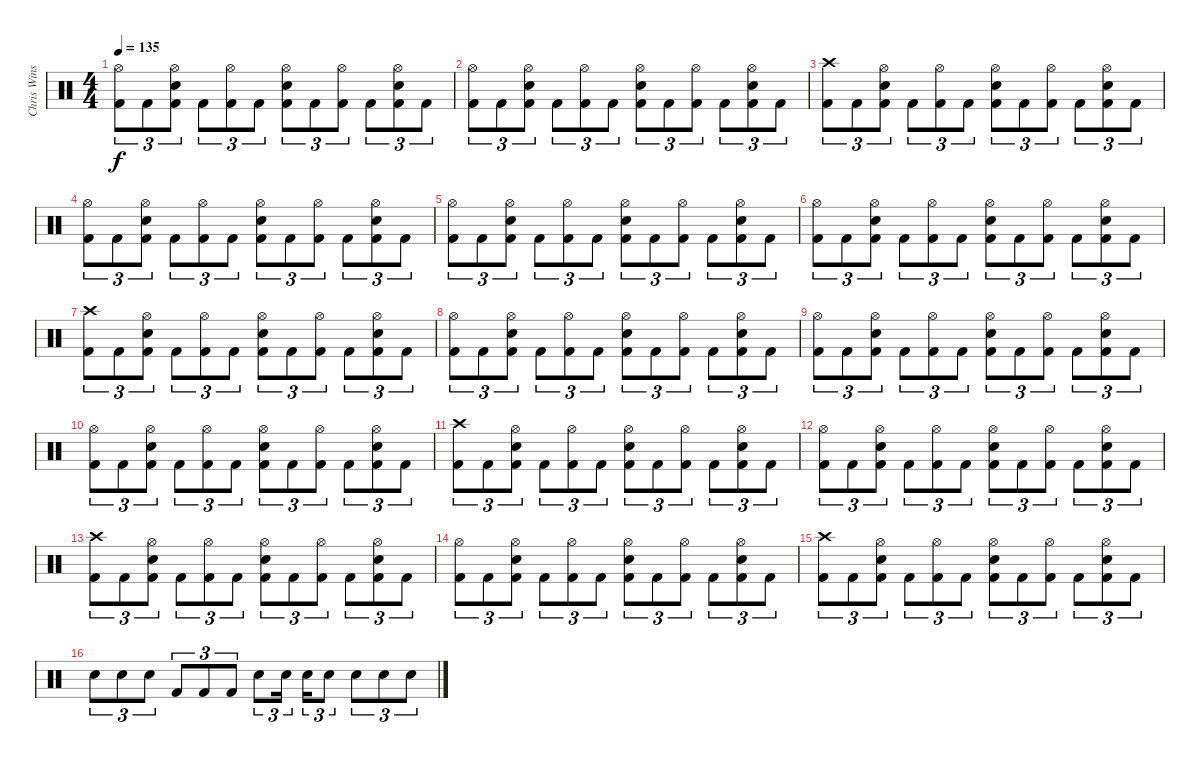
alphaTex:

\track ("Chris Winship (Drums)" "Chris Wins") {instrument percussion}
\staff {score}
\articulation defaults
\ts (4 4)
\tempo 135
\clef neutral
\ks c
("Hi-Hat (open)" "Kick (hit) 2").8{tu (3 2) dy f} "Kick (hit) 2".8{tu (3 2)} ("Hi-Hat (open)" "Electric Snare (hit)" "Kick (hit) 2").8{tu (3 2)} "Kick (hit) 2".8{tu (3 2)} ("Hi-Hat (open)" "Kick (hit) 2").8{tu (3 2)} "Kick (hit) 2".8{tu (3 2)} ("Hi-Hat (open)" "Electric Snare (hit)" "Kick (hit) 2").8{tu (3 2)} "Kick (hit) 2".8{tu (3 2)} ("Hi-Hat (open)" "Kick (hit) 2").8{tu (3 2)} "Kick (hit) 2".8{tu (3 2)} ("Hi-Hat (open)" "Electric Snare (hit)" "Kick (hit) 2").8{tu (3 2)} "Kick (hit) 2".8{tu (3 2)} |
("Hi-Hat (open)" "Kick (hit) 2").8{tu (3 2)} "Kick (hit) 2".8{tu (3 2)} ("Hi-Hat (open)" "Electric Snare (hit)" "Kick (hit) 2").8{tu (3 2)} "Kick (hit) 2".8{tu (3 2)} ("Hi-Hat (open)" "Kick (hit) 2").8{tu (3 2)} "Kick (hit) 2".8{tu (3 2)} ("Hi-Hat (open)" "Electric Snare (hit)" "Kick (hit) 2").8{tu (3 2)} "Kick (hit) 2".8{tu (3 2)} ("Hi-Hat (open)" "Kick (hit) 2").8{tu (3 2)} "Kick (hit) 2".8{tu (3 2)} ("Hi-Hat (open)" "Electric Snare (hit)" "Kick (hit) 2").8{tu (3 2)} "Kick (hit) 2".8{tu (3 2)} |
("Crash high (hit)" "Kick (hit) 2").8{tu (3 2)} "Kick (hit) 2".8{tu (3 2)} ("Hi-Hat (open)" "Electric Snare (hit)" "Kick (hit) 2").8{tu (3 2)} "Kick (hit) 2".8{tu (3 2)} ("Hi-Hat (open)" "Kick (hit) 2").8{tu (3 2)} "Kick (hit) 2".8{tu (3 2)} ("Hi-Hat (open)" "Electric Snare (hit)" "Kick (hit) 2").8{tu (3 2)} "Kick (hit) 2".8{tu (3 2)} ("Hi-Hat (open)" "Kick (hit) 2").8{tu (3 2)} "Kick (hit) 2".8{tu (3 2)} ("Hi-Hat (open)" "Electric Snare (hit)" "Kick (hit) 2").8{tu (3 2)} "Kick (hit) 2".8{tu (3 2)} |
("Hi-Hat (open)" "Kick (hit) 2").8{tu (3 2)} "Kick (hit) 2".8{tu (3 2)} ("Hi-Hat (open)" "Electric Snare (hit)" "Kick (hit) 2").8{tu (3 2)} "Kick (hit) 2".8{tu (3 2)} ("Hi-Hat (open)" "Kick (hit) 2").8{tu (3 2)} "Kick (hit) 2".8{tu (3 2)} ("Hi-Hat (open)" "Electric Snare (hit)" "Kick (hit) 2").8{tu (3 2)} "Kick (hit) 2".8{tu (3 2)} ("Hi-Hat (open)" "Kick (hit) 2").8{tu (3 2)} "Kick (hit) 2".8{tu (3 2)} ("Hi-Hat (open)" "Electric Snare (hit)" "Kick (hit) 2").8{tu (3 2)} "Kick (hit) 2".8{tu (3 2)} |
("Hi-Hat (open)" "Kick (hit) 2").8{tu (3 2)} "Kick (hit) 2".8{tu (3 2)} ("Hi-Hat (open)" "Electric Snare (hit)" "Kick (hit) 2").8{tu (3 2)} "Kick (hit) 2".8{tu (3 2)} ("Hi-Hat (open)" "Kick (hit) 2").8{tu (3 2)} "Kick (hit) 2".8{tu (3 2)} ("Hi-Hat (open)" "Electric Snare (hit)" "Kick (hit) 2").8{tu (3 2)} "Kick (hit) 2".8{tu (3 2)} ("Hi-Hat (open)" "Kick (hit) 2").8{tu (3 2)} "Kick (hit) 2".8{tu (3 2)} ("Hi-Hat (open)" "Electric Snare (hit)" "Kick (hit) 2").8{tu (3 2)} "Kick (hit) 2".8{tu (3 2)} |
("Hi-Hat (open)" "Kick (hit) 2").8{tu (3 2)} "Kick (hit) 2".8{tu (3 2)} ("Hi-Hat (open)" "Electric Snare (hit)" "Kick (hit) 2").8{tu (3 2)} "Kick (hit) 2".8{tu (3 2)} ("Hi-Hat (open)" "Kick (hit) 2").8{tu (3 2)} "Kick (hit) 2".8{tu (3 2)} ("Hi-Hat (open)" "Electric Snare (hit)" "Kick (hit) 2").8{tu (3 2)} "Kick (hit) 2".8{tu (3 2)} ("Hi-Hat (open)" "Kick (hit) 2").8{tu (3 2)} "Kick (hit) 2".8{tu (3 2)} ("Hi-Hat (open)" "Electric Snare (hit)" "Kick (hit) 2").8{tu (3 2)} "Kick (hit) 2".8{tu (3 2)} |
("Crash high (hit)" "Kick (hit) 2").8{tu (3 2)} "Kick (hit) 2".8{tu (3 2)} ("Hi-Hat (open)" "Electric Snare (hit)" "Kick (hit) 2").8{tu (3 2)} "Kick (hit) 2".8{tu (3 2)} ("Hi-Hat (open)" "Kick (hit) 2").8{tu (3 2)} "Kick (hit) 2".8{tu (3 2)} ("Hi-Hat (open)" "Electric Snare (hit)" "Kick (hit) 2").8{tu (3 2)} "Kick (hit) 2".8{tu (3 2)} ("Hi-Hat (open)" "Kick (hit) 2").8{tu (3 2)} "Kick (hit) 2".8{tu (3 2)} ("Hi-Hat (open)" "Electric Snare (hit)" "Kick (hit) 2").8{tu (3 2)} "Kick (hit) 2".8{tu (3 2)} |
("Hi-Hat (open)" "Kick (hit) 2").8{tu (3 2)} "Kick (hit) 2".8{tu (3 2)} ("Hi-Hat (open)" "Electric Snare (hit)" "Kick (hit) 2").8{tu (3 2)} "Kick (hit) 2".8{tu (3 2)} ("Hi-Hat (open)" "Kick (hit) 2").8{tu (3 2)} "Kick (hit) 2".8{tu (3 2)} ("Hi-Hat (open)" "Electric Snare (hit)" "Kick (hit) 2").8{tu (3 2)} "Kick (hit) 2".8{tu (3 2)} ("Hi-Hat (open)" "Kick (hit) 2").8{tu (3 2)} "Kick (hit) 2".8{tu (3 2)} ("Hi-Hat (open)" "Electric Snare (hit)" "Kick (hit) 2").8{tu (3 2)} "Kick (hit) 2".8{tu (3 2)} |
("Hi-Hat (open)" "Kick (hit) 2").8{tu (3 2)} "Kick (hit) 2".8{tu (3 2)} ("Hi-Hat (open)" "Electric Snare (hit)" "Kick (hit) 2").8{tu (3 2)} "Kick (hit) 2".8{tu (3 2)} ("Hi-Hat (open)" "Kick (hit) 2").8{tu (3 2)} "Kick (hit) 2".8{tu (3 2)} ("Hi-Hat (open)" "Electric Snare (hit)" "Kick (hit) 2").8{tu (3 2)} "Kick (hit) 2".8{tu (3 2)} ("Hi-Hat (open)" "Kick (hit) 2").8{tu (3 2)} "Kick (hit) 2".8{tu (3 2)} ("Hi-Hat (open)" "Electric Snare (hit)" "Kick (hit) 2").8{tu (3 2)} "Kick (hit) 2".8{tu (3 2)} |
("Hi-Hat (open)" "Kick (hit) 2").8{tu (3 2)} "Kick (hit) 2".8{tu (3 2)} ("Hi-Hat (open)" "Electric Snare (hit)" "Kick (hit) 2").8{tu (3 2)} "Kick (hit) 2".8{tu (3 2)} ("Hi-Hat (open)" "Kick (hit) 2").8{tu (3 2)} "Kick (hit) 2".8{tu (3 2)} ("Hi-Hat (open)" "Electric Snare (hit)" "Kick (hit) 2").8{tu (3 2)} "Kick (hit) 2".8{tu (3 2)} ("Hi-Hat (open)" "Kick (hit) 2").8{tu (3 2)} "Kick (hit) 2".8{tu (3 2)} ("Hi-Hat (open)" "Electric Snare (hit)" "Kick (hit) 2").8{tu (3 2)} "Kick (hit) 2".8{tu (3 2)} |
("Crash high (hit)" "Kick (hit) 2").8{tu (3 2)} "Kick (hit) 2".8{tu (3 2)} ("Hi-Hat (open)" "Electric Snare (hit)" "Kick (hit) 2").8{tu (3 2)} "Kick (hit) 2".8{tu (3 2)} ("Hi-Hat (open)" "Kick (hit) 2").8{tu (3 2)} "Kick (hit) 2".8{tu (3 2)} ("Hi-Hat (open)" "Electric Snare (hit)" "Kick (hit) 2").8{tu (3 2)} "Kick (hit) 2".8{tu (3 2)} ("Hi-Hat (open)" "Kick (hit) 2").8{tu (3 2)} "Kick (hit) 2".8{tu (3 2)} ("Hi-Hat (open)" "Electric Snare (hit)" "Kick (hit) 2").8{tu (3 2)} "Kick (hit) 2".8{tu (3 2)} |
("Hi-Hat (open)" "Kick (hit) 2").8{tu (3 2)} "Kick (hit) 2".8{tu (3 2)} ("Hi-Hat (open)" "Electric Snare (hit)" "Kick (hit) 2").8{tu (3 2)} "Kick (hit) 2".8{tu (3 2)} ("Hi-Hat (open)" "Kick (hit) 2").8{tu (3 2)} "Kick (hit) 2".8{tu (3 2)} ("Hi-Hat (open)" "Electric Snare (hit)" "Kick (hit) 2").8{tu (3 2)} "Kick (hit) 2".8{tu (3 2)} ("Hi-Hat (open)" "Kick (hit) 2").8{tu (3 2)} "Kick (hit) 2".8{tu (3 2)} ("Hi-Hat (open)" "Electric Snare (hit)" "Kick (hit) 2").8{tu (3 2)} "Kick (hit) 2".8{tu (3 2)} |
("Crash high (hit)" "Kick (hit) 2").8{tu (3 2)} "Kick (hit) 2".8{tu (3 2)} ("Hi-Hat (open)" "Electric Snare (hit)" "Kick (hit) 2").8{tu (3 2)} "Kick (hit) 2".8{tu (3 2)} ("Hi-Hat (open)" "Kick (hit) 2").8{tu (3 2)} "Kick (hit) 2".8{tu (3 2)} ("Hi-Hat (open)" "Electric Snare (hit)" "Kick (hit) 2").8{tu (3 2)} "Kick (hit) 2".8{tu (3 2)} ("Hi-Hat (open)" "Kick (hit) 2").8{tu (3 2)} "Kick (hit) 2".8{tu (3 2)} ("Hi-Hat (open)" "Electric Snare (hit)" "Kick (hit) 2").8{tu (3 2)} "Kick (hit) 2".8{tu (3 2)} |
("Hi-Hat (open)" "Kick (hit) 2").8{tu (3 2)} "Kick (hit) 2".8{tu (3 2)} ("Hi-Hat (open)" "Electric Snare (hit)" "Kick (hit) 2").8{tu (3 2)} "Kick (hit) 2".8{tu (3 2)} ("Hi-Hat (open)" "Kick (hit) 2").8{tu (3 2)} "Kick (hit) 2".8{tu (3 2)} ("Hi-Hat (open)" "Electric Snare (hit)" "Kick (hit) 2").8{tu (3 2)} "Kick (hit) 2".8{tu (3 2)} ("Hi-Hat (open)" "Kick (hit) 2").8{tu (3 2)} "Kick (hit) 2".8{tu (3 2)} ("Hi-Hat (open)" "Electric Snare (hit)" "Kick (hit) 2").8{tu (3 2)} "Kick (hit) 2".8{tu (3 2)} |
("Crash high (hit)" "Kick (hit) 2").8{tu (3 2)} "Kick (hit) 2".8{tu (3 2)} ("Hi-Hat (open)" "Electric Snare (hit)" "Kick (hit) 2").8{tu (3 2)} "Kick (hit) 2".8{tu (3 2)} ("Hi-Hat (open)" "Kick (hit) 2").8{tu (3 2)} "Kick (hit) 2".8{tu (3 2)} ("Hi-Hat (open)" "Electric Snare (hit)" "Kick (hit) 2").8{tu (3 2)} "Kick (hit) 2".8{tu (3 2)} ("Hi-Hat (open)" "Kick (hit) 2").8{tu (3 2)} "Kick (hit) 2".8{tu (3 2)} ("Hi-Hat (open)" "Electric Snare (hit)" "Kick (hit) 2").8{tu (3 2)} "Kick (hit) 2".8{tu (3 2)} |
"Electric Snare (hit)".8{tu (3 2)} "Electric Snare (hit)".8{tu (3 2)} "Electric Snare (hit)".8{tu (3 2)} "Kick (hit) 2".8{tu (3 2)} "Kick (hit) 2".8{tu (3 2)} "Kick (hit) 2".8{tu (3 2)} "Electric Snare (hit)".8{tu (3 2)} "Electric Snare (hit)".16{tu (3 2)} "Electric Snare (hit)".16{tu (3 2)} "Electric Snare (hit)".8{tu (3 2)} "Electric Snare (hit)".8{tu (3 2)} "Electric Snare (hit)".8{tu (3 2)} "Electric Snare (hit)".8{tu (3 2)}
